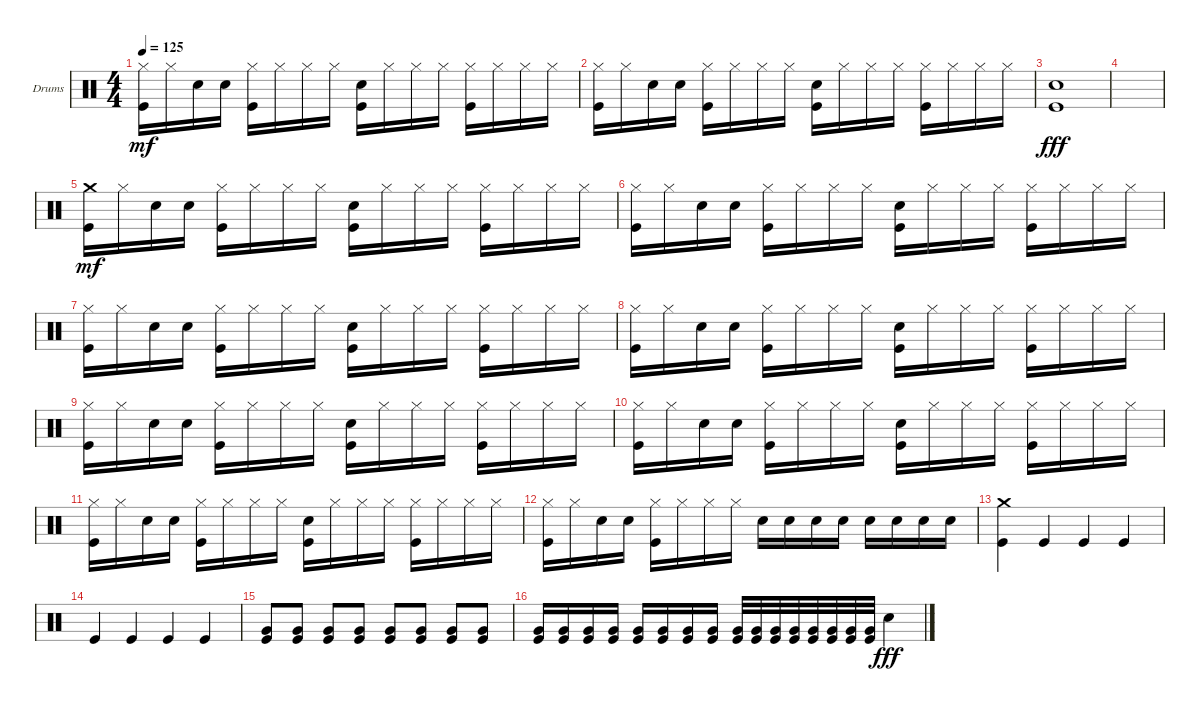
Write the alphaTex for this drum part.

\defaultSystemsLayout 4
\bracketExtendMode groupsimilarinstruments
\firstSystemTrackNameOrientation horizontal
\otherSystemsTrackNameOrientation horizontal
\track ("Drumkit" "Drums") {instrument percussion}
\staff {score}
\articulation defaults
\ts (4 4)
\tempo 125
\clef neutral
\scale
0.333333
\ks c
("Hi-Hat (closed)" "Kick (hit)").16{dy mf} "Hi-Hat (closed)".16 "Snare (hit) 2".16 "Snare (hit) 2".16 ("Kick (hit)" "Hi-Hat (closed)").16 "Hi-Hat (closed)".16 "Hi-Hat (closed)".16 "Hi-Hat (closed)".16 ("Kick (hit)" "Snare (hit) 2").16 "Hi-Hat (closed)".16 "Hi-Hat (closed)".16 "Hi-Hat (closed)".16 ("Hi-Hat (closed)" "Kick (hit)").16 "Hi-Hat (closed)".16 "Hi-Hat (closed)".16 "Hi-Hat (closed)".16 |
\scale
0.333333 ("Hi-Hat (closed)" "Kick (hit)").16 "Hi-Hat (closed)".16 "Snare (hit) 2".16 "Snare (hit) 2".16 ("Kick (hit)" "Hi-Hat (closed)").16 "Hi-Hat (closed)".16 "Hi-Hat (closed)".16 "Hi-Hat (closed)".16 ("Kick (hit)" "Snare (hit) 2").16 "Hi-Hat (closed)".16 "Hi-Hat (closed)".16 "Hi-Hat (closed)".16 ("Hi-Hat (closed)" "Kick (hit)").16 "Hi-Hat (closed)".16 "Hi-Hat (closed)".16 "Hi-Hat (closed)".16 |
\scale
0.333333 ("Snare (hit) 2" "Kick (hit)").1{dy fff} |
\scale
0.333333 |
\scale
0.333333 ("Kick (hit)" "Crash medium (hit)").16{dy mf} "Hi-Hat (closed)".16 "Snare (hit) 2".16 "Snare (hit) 2".16 ("Kick (hit)" "Hi-Hat (closed)").16 "Hi-Hat (closed)".16 "Hi-Hat (closed)".16 "Hi-Hat (closed)".16 ("Kick (hit)" "Snare (hit) 2").16 "Hi-Hat (closed)".16 "Hi-Hat (closed)".16 "Hi-Hat (closed)".16 ("Hi-Hat (closed)" "Kick (hit)").16 "Hi-Hat (closed)".16 "Hi-Hat (closed)".16 "Hi-Hat (closed)".16 |
\scale
0.333333 ("Hi-Hat (closed)" "Kick (hit)").16 "Hi-Hat (closed)".16 "Snare (hit) 2".16 "Snare (hit) 2".16 ("Kick (hit)" "Hi-Hat (closed)").16 "Hi-Hat (closed)".16 "Hi-Hat (closed)".16 "Hi-Hat (closed)".16 ("Kick (hit)" "Snare (hit) 2").16 "Hi-Hat (closed)".16 "Hi-Hat (closed)".16 "Hi-Hat (closed)".16 ("Hi-Hat (closed)" "Kick (hit)").16 "Hi-Hat (closed)".16 "Hi-Hat (closed)".16 "Hi-Hat (closed)".16 |
\scale
0.333333 ("Hi-Hat (closed)" "Kick (hit)").16 "Hi-Hat (closed)".16 "Snare (hit) 2".16 "Snare (hit) 2".16 ("Kick (hit)" "Hi-Hat (closed)").16 "Hi-Hat (closed)".16 "Hi-Hat (closed)".16 "Hi-Hat (closed)".16 ("Kick (hit)" "Snare (hit) 2").16 "Hi-Hat (closed)".16 "Hi-Hat (closed)".16 "Hi-Hat (closed)".16 ("Hi-Hat (closed)" "Kick (hit)").16 "Hi-Hat (closed)".16 "Hi-Hat (closed)".16 "Hi-Hat (closed)".16 |
\scale
0.333333 ("Hi-Hat (closed)" "Kick (hit)").16 "Hi-Hat (closed)".16 "Snare (hit) 2".16 "Snare (hit) 2".16 ("Kick (hit)" "Hi-Hat (closed)").16 "Hi-Hat (closed)".16 "Hi-Hat (closed)".16 "Hi-Hat (closed)".16 ("Kick (hit)" "Snare (hit) 2").16 "Hi-Hat (closed)".16 "Hi-Hat (closed)".16 "Hi-Hat (closed)".16 ("Hi-Hat (closed)" "Kick (hit)").16 "Hi-Hat (closed)".16 "Hi-Hat (closed)".16 "Hi-Hat (closed)".16 |
\scale
0.333333 ("Hi-Hat (closed)" "Kick (hit)").16 "Hi-Hat (closed)".16 "Snare (hit) 2".16 "Snare (hit) 2".16 ("Kick (hit)" "Hi-Hat (closed)").16 "Hi-Hat (closed)".16 "Hi-Hat (closed)".16 "Hi-Hat (closed)".16 ("Kick (hit)" "Snare (hit) 2").16 "Hi-Hat (closed)".16 "Hi-Hat (closed)".16 "Hi-Hat (closed)".16 ("Hi-Hat (closed)" "Kick (hit)").16 "Hi-Hat (closed)".16 "Hi-Hat (closed)".16 "Hi-Hat (closed)".16 |
\scale
0.333333 ("Hi-Hat (closed)" "Kick (hit)").16 "Hi-Hat (closed)".16 "Snare (hit) 2".16 "Snare (hit) 2".16 ("Kick (hit)" "Hi-Hat (closed)").16 "Hi-Hat (closed)".16 "Hi-Hat (closed)".16 "Hi-Hat (closed)".16 ("Kick (hit)" "Snare (hit) 2").16 "Hi-Hat (closed)".16 "Hi-Hat (closed)".16 "Hi-Hat (closed)".16 ("Hi-Hat (closed)" "Kick (hit)").16 "Hi-Hat (closed)".16 "Hi-Hat (closed)".16 "Hi-Hat (closed)".16 |
\scale
0.333333 ("Hi-Hat (closed)" "Kick (hit)").16 "Hi-Hat (closed)".16 "Snare (hit) 2".16 "Snare (hit) 2".16 ("Kick (hit)" "Hi-Hat (closed)").16 "Hi-Hat (closed)".16 "Hi-Hat (closed)".16 "Hi-Hat (closed)".16 ("Kick (hit)" "Snare (hit) 2").16 "Hi-Hat (closed)".16 "Hi-Hat (closed)".16 "Hi-Hat (closed)".16 ("Hi-Hat (closed)" "Kick (hit)").16 "Hi-Hat (closed)".16 "Hi-Hat (closed)".16 "Hi-Hat (closed)".16 |
\scale
0.333333 ("Hi-Hat (closed)" "Kick (hit)").16 "Hi-Hat (closed)".16 "Snare (hit) 2".16 "Snare (hit) 2".16 ("Kick (hit)" "Hi-Hat (closed)").16 "Hi-Hat (closed)".16 "Hi-Hat (closed)".16 "Hi-Hat (closed)".16 "Snare (hit) 2".16 "Snare (hit) 2".16 "Snare (hit) 2".16 "Snare (hit) 2".16 "Snare (hit) 2".16 "Snare (hit) 2".16 "Snare (hit) 2".16 "Snare (hit) 2".16 |
\scale
0.333333 ("Kick (hit)" "Crash medium (hit)").4 "Kick (hit)".4 "Kick (hit)".4 "Kick (hit)".4 |
\scale
0.333333 "Kick (hit)".4 "Kick (hit)".4 "Kick (hit)".4 "Kick (hit)".4 |
\scale
0.333333 ("Very Low Tom (hit)" "Kick (hit)").8 ("Very Low Tom (hit)" "Kick (hit)").8 ("Very Low Tom (hit)" "Kick (hit)").8 ("Very Low Tom (hit)" "Kick (hit)").8 ("Very Low Tom (hit)" "Kick (hit)").8 ("Very Low Tom (hit)" "Kick (hit)").8 ("Very Low Tom (hit)" "Kick (hit)").8 ("Very Low Tom (hit)" "Kick (hit)").8 |
\scale
0.333333 ("Kick (hit)" "Very Low Tom (hit)").16 ("Kick (hit)" "Very Low Tom (hit)").16 ("Kick (hit)" "Very Low Tom (hit)").16 ("Kick (hit)" "Very Low Tom (hit)").16 ("Kick (hit)" "Very Low Tom (hit)").16 ("Kick (hit)" "Very Low Tom (hit)").16 ("Kick (hit)" "Very Low Tom (hit)").16 ("Kick (hit)" "Very Low Tom (hit)").16 ("Kick (hit)" "Very Low Tom (hit)").32 ("Kick (hit)" "Very Low Tom (hit)").32 ("Kick (hit)" "Very Low Tom (hit)").32 ("Kick (hit)" "Very Low Tom (hit)").32 ("Kick (hit)" "Very Low Tom (hit)").32 ("Kick (hit)" "Very Low Tom (hit)").32 ("Kick (hit)" "Very Low Tom (hit)").32 ("Kick (hit)" "Very Low Tom (hit)").32 "Snare (hit) 2".4{dy fff}
